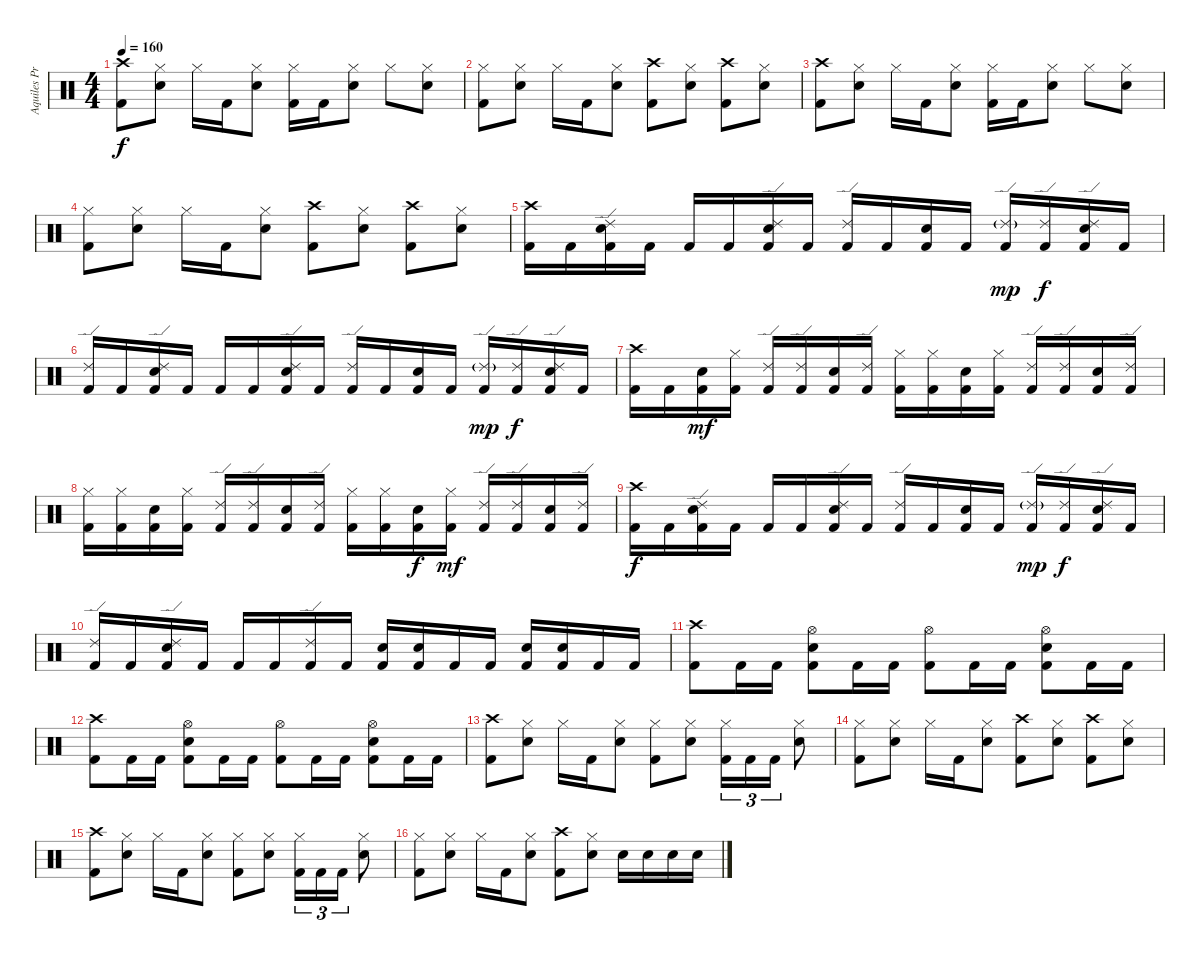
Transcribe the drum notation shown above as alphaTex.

\track ("Aquiles Priester" "Aquiles Pr") {instrument percussion}
\staff {score}
\articulation defaults
\ts (4 4)
\tempo 160
\clef neutral
\ks c
("Crash high (hit)" "Kick (hit) 2").8{dy f} ("Hi-Hat (closed)" "Electric Snare (hit)").8 "Hi-Hat (closed)".16 "Kick (hit) 2".16 ("Hi-Hat (closed)" "Electric Snare (hit)").8 ("Hi-Hat (closed)" "Kick (hit) 2").16 "Kick (hit) 2".16 ("Hi-Hat (closed)" "Electric Snare (hit)").8 "Hi-Hat (closed)".8 ("Hi-Hat (closed)" "Electric Snare (hit)").8 |
("Hi-Hat (closed)" "Kick (hit) 2").8 ("Hi-Hat (closed)" "Electric Snare (hit)").8 "Hi-Hat (closed)".16 "Kick (hit) 2".16 ("Hi-Hat (closed)" "Electric Snare (hit)").8 ("Crash high (hit)" "Kick (hit) 2").8 ("Hi-Hat (closed)" "Electric Snare (hit)").8 ("Crash high (hit)" "Kick (hit) 2").8 ("Hi-Hat (closed)" "Electric Snare (hit)").8 |
("Crash high (hit)" "Kick (hit) 2").8 ("Hi-Hat (closed)" "Electric Snare (hit)").8 "Hi-Hat (closed)".16 "Kick (hit) 2".16 ("Hi-Hat (closed)" "Electric Snare (hit)").8 ("Hi-Hat (closed)" "Kick (hit) 2").16 "Kick (hit) 2".16 ("Hi-Hat (closed)" "Electric Snare (hit)").8 "Hi-Hat (closed)".8 ("Hi-Hat (closed)" "Electric Snare (hit)").8 |
("Hi-Hat (closed)" "Kick (hit) 2").8 ("Hi-Hat (closed)" "Electric Snare (hit)").8 "Hi-Hat (closed)".16 "Kick (hit) 2".16 ("Hi-Hat (closed)" "Electric Snare (hit)").8 ("Crash high (hit)" "Kick (hit) 2").8 ("Hi-Hat (closed)" "Electric Snare (hit)").8 ("Crash high (hit)" "Kick (hit) 2").8 ("Hi-Hat (closed)" "Electric Snare (hit)").8 |
("Crash high (hit)" "Kick (hit) 2").16 "Kick (hit) 2".16 ("Ride (edge) 2" "Electric Snare (hit)" "Kick (hit) 2").16 "Kick (hit) 2".16 "Kick (hit) 2".16 "Kick (hit) 2".16 ("Ride (edge) 2" "Electric Snare (hit)" "Kick (hit) 2").16 "Kick (hit) 2".16 ("Ride (edge) 2" "Kick (hit) 2").16 "Kick (hit) 2".16 ("Electric Snare (hit)" "Kick (hit) 2").16 "Kick (hit) 2".16 ("Ride (edge) 2"{g} "Kick (hit) 2").16{dy mp} ("Ride (edge) 2" "Kick (hit) 2").16{dy f} ("Ride (edge) 2" "Electric Snare (hit)" "Kick (hit) 2").16 "Kick (hit) 2".16 |
("Ride (edge) 2" "Kick (hit) 2").16 "Kick (hit) 2".16 ("Ride (edge) 2" "Electric Snare (hit)" "Kick (hit) 2").16 "Kick (hit) 2".16 "Kick (hit) 2".16 "Kick (hit) 2".16 ("Ride (edge) 2" "Electric Snare (hit)" "Kick (hit) 2").16 "Kick (hit) 2".16 ("Ride (edge) 2" "Kick (hit) 2").16 "Kick (hit) 2".16 ("Electric Snare (hit)" "Kick (hit) 2").16 "Kick (hit) 2".16 ("Ride (edge) 2"{g} "Kick (hit) 2").16{dy mp} ("Ride (edge) 2" "Kick (hit) 2").16{dy f} ("Ride (edge) 2" "Electric Snare (hit)" "Kick (hit) 2").16 "Kick (hit) 2".16 |
("Crash high (hit)" "Kick (hit) 2").16 "Kick (hit) 2".16 ("Electric Snare (hit)" "Kick (hit) 2").16{dy mf} ("Hi-Hat (closed)" "Kick (hit) 2").16 ("Ride (edge) 2" "Kick (hit) 2").16 ("Ride (edge) 2" "Kick (hit) 2").16 ("Electric Snare (hit)" "Kick (hit) 2").16 ("Ride (edge) 2" "Kick (hit) 2").16 ("Hi-Hat (closed)" "Kick (hit) 2").16 ("Hi-Hat (closed)" "Kick (hit) 2").16 ("Electric Snare (hit)" "Kick (hit) 2").16 ("Hi-Hat (closed)" "Kick (hit) 2").16 ("Ride (edge) 2" "Kick (hit) 2").16 ("Ride (edge) 2" "Kick (hit) 2").16 ("Electric Snare (hit)" "Kick (hit) 2").16 ("Ride (edge) 2" "Kick (hit) 2").16 |
("Hi-Hat (closed)" "Kick (hit) 2").16 ("Hi-Hat (closed)" "Kick (hit) 2").16 ("Electric Snare (hit)" "Kick (hit) 2").16 ("Hi-Hat (closed)" "Kick (hit) 2").16 ("Ride (edge) 2" "Kick (hit) 2").16 ("Ride (edge) 2" "Kick (hit) 2").16 ("Electric Snare (hit)" "Kick (hit) 2").16 ("Ride (edge) 2" "Kick (hit) 2").16 ("Hi-Hat (closed)" "Kick (hit) 2").16 ("Hi-Hat (closed)" "Kick (hit) 2").16 ("Electric Snare (hit)" "Kick (hit) 2").16{dy f} ("Hi-Hat (closed)" "Kick (hit) 2").16{dy mf} ("Ride (edge) 2" "Kick (hit) 2").16 ("Ride (edge) 2" "Kick (hit) 2").16 ("Electric Snare (hit)" "Kick (hit) 2").16 ("Ride (edge) 2" "Kick (hit) 2").16 |
("Crash high (hit)" "Kick (hit) 2").16{dy f} "Kick (hit) 2".16 ("Ride (edge) 2" "Electric Snare (hit)" "Kick (hit) 2").16 "Kick (hit) 2".16 "Kick (hit) 2".16 "Kick (hit) 2".16 ("Ride (edge) 2" "Electric Snare (hit)" "Kick (hit) 2").16 "Kick (hit) 2".16 ("Ride (edge) 2" "Kick (hit) 2").16 "Kick (hit) 2".16 ("Electric Snare (hit)" "Kick (hit) 2").16 "Kick (hit) 2".16 ("Ride (edge) 2"{g} "Kick (hit) 2").16{dy mp} ("Ride (edge) 2" "Kick (hit) 2").16{dy f} ("Ride (edge) 2" "Electric Snare (hit)" "Kick (hit) 2").16 "Kick (hit) 2".16 |
("Ride (edge) 2" "Kick (hit) 2").16 "Kick (hit) 2".16 ("Ride (edge) 2" "Electric Snare (hit)" "Kick (hit) 2").16 "Kick (hit) 2".16 "Kick (hit) 2".16 "Kick (hit) 2".16 ("Ride (edge) 2" "Kick (hit) 2").16 "Kick (hit) 2".16 ("Electric Snare (hit)" "Kick (hit) 2").16 ("Electric Snare (hit)" "Kick (hit) 2").16 "Kick (hit) 2".16 "Kick (hit) 2".16 ("Electric Snare (hit)" "Kick (hit) 2").16 ("Electric Snare (hit)" "Kick (hit) 2").16 "Kick (hit) 2".16 "Kick (hit) 2".16 |
("Crash high (hit)" "Kick (hit) 2").8 "Kick (hit) 2".16 "Kick (hit) 2".16 ("Hi-Hat (open)" "Electric Snare (hit)" "Kick (hit) 2").8 "Kick (hit) 2".16 "Kick (hit) 2".16 ("Hi-Hat (open)" "Kick (hit) 2").8 "Kick (hit) 2".16 "Kick (hit) 2".16 ("Hi-Hat (open)" "Electric Snare (hit)" "Kick (hit) 2").8 "Kick (hit) 2".16 "Kick (hit) 2".16 |
("Crash high (hit)" "Kick (hit) 2").8 "Kick (hit) 2".16 "Kick (hit) 2".16 ("Hi-Hat (open)" "Electric Snare (hit)" "Kick (hit) 2").8 "Kick (hit) 2".16 "Kick (hit) 2".16 ("Hi-Hat (open)" "Kick (hit) 2").8 "Kick (hit) 2".16 "Kick (hit) 2".16 ("Hi-Hat (open)" "Electric Snare (hit)" "Kick (hit) 2").8 "Kick (hit) 2".16 "Kick (hit) 2".16 |
("Crash high (hit)" "Kick (hit) 2").8 ("Hi-Hat (closed)" "Electric Snare (hit)").8 "Hi-Hat (closed)".16 "Kick (hit) 2".16 ("Hi-Hat (closed)" "Electric Snare (hit)").8 ("Hi-Hat (closed)" "Kick (hit) 2").8 ("Hi-Hat (closed)" "Electric Snare (hit)").8 ("Hi-Hat (closed)" "Kick (hit) 2").16{tu (3 2)} "Kick (hit) 2".16{tu (3 2)} "Kick (hit) 2".16{tu (3 2)} ("Hi-Hat (closed)" "Electric Snare (hit)").8 |
("Hi-Hat (closed)" "Kick (hit) 2").8 ("Hi-Hat (closed)" "Electric Snare (hit)").8 "Hi-Hat (closed)".16 "Kick (hit) 2".16 ("Hi-Hat (closed)" "Electric Snare (hit)").8 ("Crash high (hit)" "Kick (hit) 2").8 ("Hi-Hat (closed)" "Electric Snare (hit)").8 ("Crash high (hit)" "Kick (hit) 2").8 ("Hi-Hat (closed)" "Electric Snare (hit)").8 |
("Crash high (hit)" "Kick (hit) 2").8 ("Hi-Hat (closed)" "Electric Snare (hit)").8 "Hi-Hat (closed)".16 "Kick (hit) 2".16 ("Hi-Hat (closed)" "Electric Snare (hit)").8 ("Hi-Hat (closed)" "Kick (hit) 2").8 ("Hi-Hat (closed)" "Electric Snare (hit)").8 ("Hi-Hat (closed)" "Kick (hit) 2").16{tu (3 2)} "Kick (hit) 2".16{tu (3 2)} "Kick (hit) 2".16{tu (3 2)} ("Hi-Hat (closed)" "Electric Snare (hit)").8 |
("Hi-Hat (closed)" "Kick (hit) 2").8 ("Hi-Hat (closed)" "Electric Snare (hit)").8 "Hi-Hat (closed)".16 "Kick (hit) 2".16 ("Hi-Hat (closed)" "Electric Snare (hit)").8 ("Crash high (hit)" "Kick (hit) 2").8 ("Hi-Hat (closed)" "Electric Snare (hit)").8 "Electric Snare (hit)".16 "Electric Snare (hit)".16 "Electric Snare (hit)".16 "Electric Snare (hit)".16
